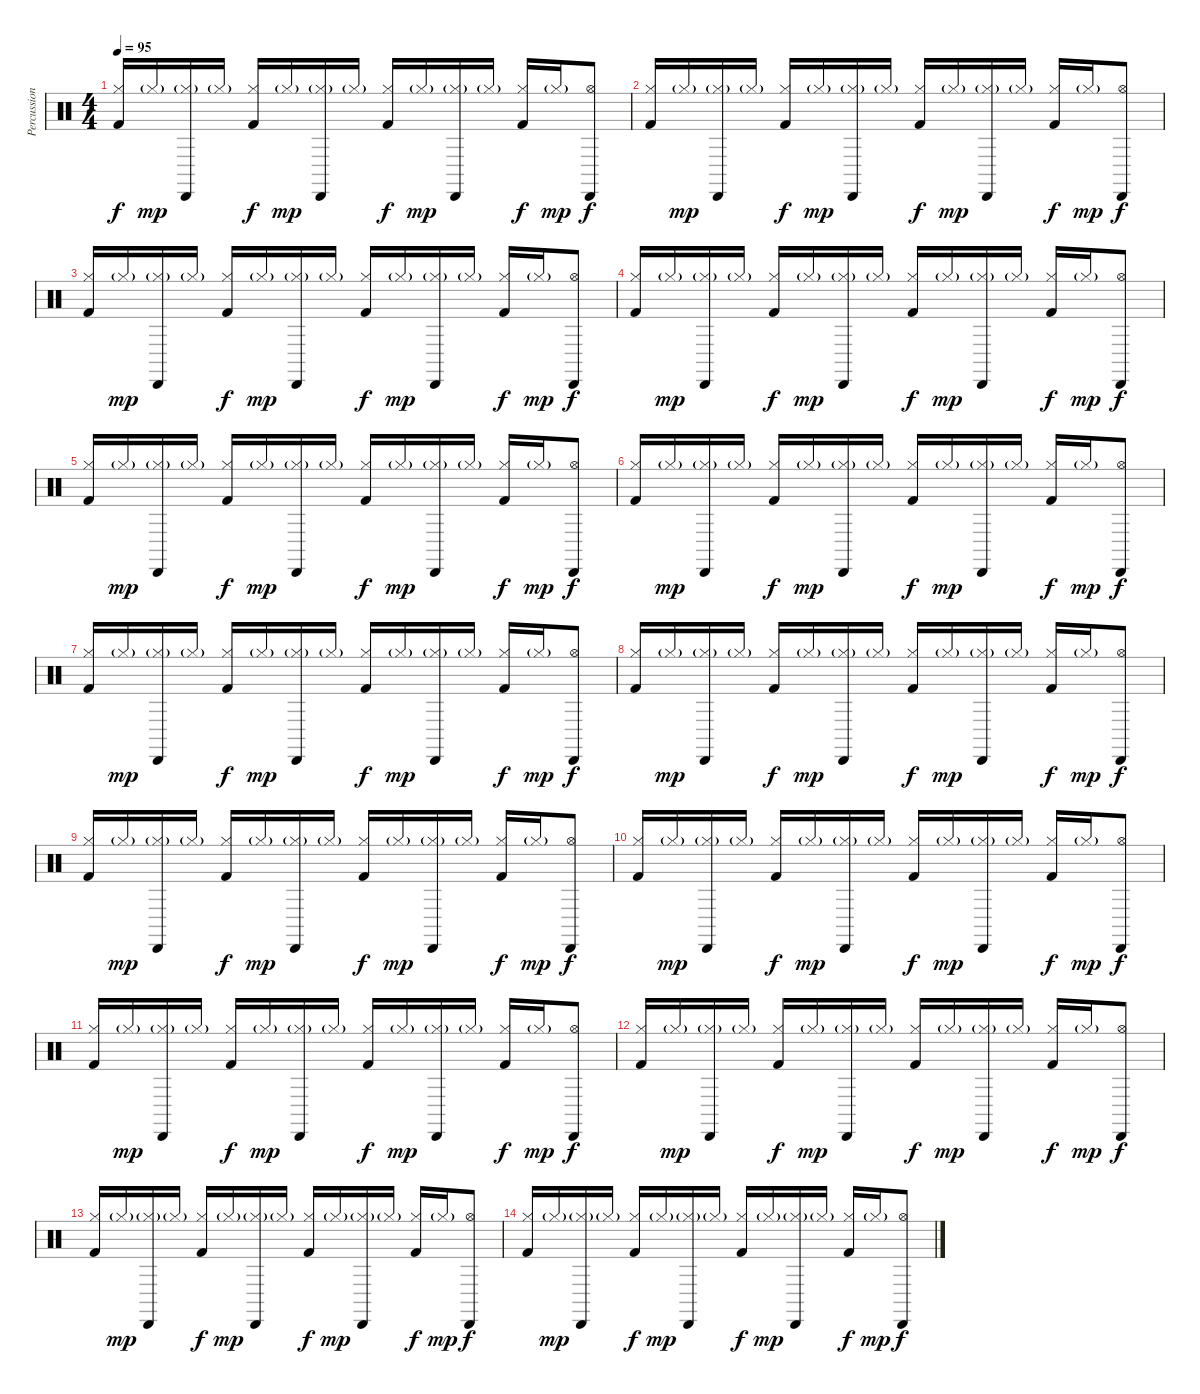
\track ("Percussion" "Percussion") {instrument percussion}
\staff {score}
\articulation defaults
\ts (4 4)
\tempo 95
\clef neutral
\ks c
("Hi-Hat (closed)" "Kick (hit) 2").16{dy f} "Hi-Hat (closed)"{g}.16{dy mp} ("Hi-Hat (closed)"{g} "Cabasa (hit)").16 "Hi-Hat (closed)"{g}.16 ("Hi-Hat (closed)" "Kick (hit) 2").16{dy f} "Hi-Hat (closed)"{g}.16{dy mp} ("Hi-Hat (closed)"{g} "Cabasa (hit)").16 "Hi-Hat (closed)"{g}.16 ("Hi-Hat (closed)" "Kick (hit) 2").16{dy f} "Hi-Hat (closed)"{g}.16{dy mp} ("Hi-Hat (closed)"{g} "Cabasa (hit)").16 "Hi-Hat (closed)"{g}.16 ("Hi-Hat (closed)" "Kick (hit) 2").16{dy f} "Hi-Hat (closed)"{g}.16{dy mp} ("Hi-Hat (open)" "Cabasa (hit)").8{dy f} |
("Hi-Hat (closed)" "Kick (hit) 2").16 "Hi-Hat (closed)"{g}.16{dy mp} ("Hi-Hat (closed)"{g} "Cabasa (hit)").16 "Hi-Hat (closed)"{g}.16 ("Hi-Hat (closed)" "Kick (hit) 2").16{dy f} "Hi-Hat (closed)"{g}.16{dy mp} ("Hi-Hat (closed)"{g} "Cabasa (hit)").16 "Hi-Hat (closed)"{g}.16 ("Hi-Hat (closed)" "Kick (hit) 2").16{dy f} "Hi-Hat (closed)"{g}.16{dy mp} ("Hi-Hat (closed)"{g} "Cabasa (hit)").16 "Hi-Hat (closed)"{g}.16 ("Hi-Hat (closed)" "Kick (hit) 2").16{dy f} "Hi-Hat (closed)"{g}.16{dy mp} ("Hi-Hat (open)" "Cabasa (hit)").8{dy f} |
("Hi-Hat (closed)" "Kick (hit) 2").16 "Hi-Hat (closed)"{g}.16{dy mp} ("Hi-Hat (closed)"{g} "Cabasa (hit)").16 "Hi-Hat (closed)"{g}.16 ("Hi-Hat (closed)" "Kick (hit) 2").16{dy f} "Hi-Hat (closed)"{g}.16{dy mp} ("Hi-Hat (closed)"{g} "Cabasa (hit)").16 "Hi-Hat (closed)"{g}.16 ("Hi-Hat (closed)" "Kick (hit) 2").16{dy f} "Hi-Hat (closed)"{g}.16{dy mp} ("Hi-Hat (closed)"{g} "Cabasa (hit)").16 "Hi-Hat (closed)"{g}.16 ("Hi-Hat (closed)" "Kick (hit) 2").16{dy f} "Hi-Hat (closed)"{g}.16{dy mp} ("Hi-Hat (open)" "Cabasa (hit)").8{dy f} |
("Hi-Hat (closed)" "Kick (hit) 2").16 "Hi-Hat (closed)"{g}.16{dy mp} ("Hi-Hat (closed)"{g} "Cabasa (hit)").16 "Hi-Hat (closed)"{g}.16 ("Hi-Hat (closed)" "Kick (hit) 2").16{dy f} "Hi-Hat (closed)"{g}.16{dy mp} ("Hi-Hat (closed)"{g} "Cabasa (hit)").16 "Hi-Hat (closed)"{g}.16 ("Hi-Hat (closed)" "Kick (hit) 2").16{dy f} "Hi-Hat (closed)"{g}.16{dy mp} ("Hi-Hat (closed)"{g} "Cabasa (hit)").16 "Hi-Hat (closed)"{g}.16 ("Hi-Hat (closed)" "Kick (hit) 2").16{dy f} "Hi-Hat (closed)"{g}.16{dy mp} ("Hi-Hat (open)" "Cabasa (hit)").8{dy f} |
("Hi-Hat (closed)" "Kick (hit) 2").16 "Hi-Hat (closed)"{g}.16{dy mp} ("Hi-Hat (closed)"{g} "Cabasa (hit)").16 "Hi-Hat (closed)"{g}.16 ("Hi-Hat (closed)" "Kick (hit) 2").16{dy f} "Hi-Hat (closed)"{g}.16{dy mp} ("Hi-Hat (closed)"{g} "Cabasa (hit)").16 "Hi-Hat (closed)"{g}.16 ("Hi-Hat (closed)" "Kick (hit) 2").16{dy f} "Hi-Hat (closed)"{g}.16{dy mp} ("Hi-Hat (closed)"{g} "Cabasa (hit)").16 "Hi-Hat (closed)"{g}.16 ("Hi-Hat (closed)" "Kick (hit) 2").16{dy f} "Hi-Hat (closed)"{g}.16{dy mp} ("Hi-Hat (open)" "Cabasa (hit)").8{dy f} |
("Hi-Hat (closed)" "Kick (hit) 2").16 "Hi-Hat (closed)"{g}.16{dy mp} ("Hi-Hat (closed)"{g} "Cabasa (hit)").16 "Hi-Hat (closed)"{g}.16 ("Hi-Hat (closed)" "Kick (hit) 2").16{dy f} "Hi-Hat (closed)"{g}.16{dy mp} ("Hi-Hat (closed)"{g} "Cabasa (hit)").16 "Hi-Hat (closed)"{g}.16 ("Hi-Hat (closed)" "Kick (hit) 2").16{dy f} "Hi-Hat (closed)"{g}.16{dy mp} ("Hi-Hat (closed)"{g} "Cabasa (hit)").16 "Hi-Hat (closed)"{g}.16 ("Hi-Hat (closed)" "Kick (hit) 2").16{dy f} "Hi-Hat (closed)"{g}.16{dy mp} ("Hi-Hat (open)" "Cabasa (hit)").8{dy f} |
("Hi-Hat (closed)" "Kick (hit) 2").16 "Hi-Hat (closed)"{g}.16{dy mp} ("Hi-Hat (closed)"{g} "Cabasa (hit)").16 "Hi-Hat (closed)"{g}.16 ("Hi-Hat (closed)" "Kick (hit) 2").16{dy f} "Hi-Hat (closed)"{g}.16{dy mp} ("Hi-Hat (closed)"{g} "Cabasa (hit)").16 "Hi-Hat (closed)"{g}.16 ("Hi-Hat (closed)" "Kick (hit) 2").16{dy f} "Hi-Hat (closed)"{g}.16{dy mp} ("Hi-Hat (closed)"{g} "Cabasa (hit)").16 "Hi-Hat (closed)"{g}.16 ("Hi-Hat (closed)" "Kick (hit) 2").16{dy f} "Hi-Hat (closed)"{g}.16{dy mp} ("Hi-Hat (open)" "Cabasa (hit)").8{dy f} |
("Hi-Hat (closed)" "Kick (hit) 2").16 "Hi-Hat (closed)"{g}.16{dy mp} ("Hi-Hat (closed)"{g} "Cabasa (hit)").16 "Hi-Hat (closed)"{g}.16 ("Hi-Hat (closed)" "Kick (hit) 2").16{dy f} "Hi-Hat (closed)"{g}.16{dy mp} ("Hi-Hat (closed)"{g} "Cabasa (hit)").16 "Hi-Hat (closed)"{g}.16 ("Hi-Hat (closed)" "Kick (hit) 2").16{dy f} "Hi-Hat (closed)"{g}.16{dy mp} ("Hi-Hat (closed)"{g} "Cabasa (hit)").16 "Hi-Hat (closed)"{g}.16 ("Hi-Hat (closed)" "Kick (hit) 2").16{dy f} "Hi-Hat (closed)"{g}.16{dy mp} ("Hi-Hat (open)" "Cabasa (hit)").8{dy f} |
("Hi-Hat (closed)" "Kick (hit) 2").16 "Hi-Hat (closed)"{g}.16{dy mp} ("Hi-Hat (closed)"{g} "Cabasa (hit)").16 "Hi-Hat (closed)"{g}.16 ("Hi-Hat (closed)" "Kick (hit) 2").16{dy f} "Hi-Hat (closed)"{g}.16{dy mp} ("Hi-Hat (closed)"{g} "Cabasa (hit)").16 "Hi-Hat (closed)"{g}.16 ("Hi-Hat (closed)" "Kick (hit) 2").16{dy f} "Hi-Hat (closed)"{g}.16{dy mp} ("Hi-Hat (closed)"{g} "Cabasa (hit)").16 "Hi-Hat (closed)"{g}.16 ("Hi-Hat (closed)" "Kick (hit) 2").16{dy f} "Hi-Hat (closed)"{g}.16{dy mp} ("Hi-Hat (open)" "Cabasa (hit)").8{dy f} |
("Hi-Hat (closed)" "Kick (hit) 2").16 "Hi-Hat (closed)"{g}.16{dy mp} ("Hi-Hat (closed)"{g} "Cabasa (hit)").16 "Hi-Hat (closed)"{g}.16 ("Hi-Hat (closed)" "Kick (hit) 2").16{dy f} "Hi-Hat (closed)"{g}.16{dy mp} ("Hi-Hat (closed)"{g} "Cabasa (hit)").16 "Hi-Hat (closed)"{g}.16 ("Hi-Hat (closed)" "Kick (hit) 2").16{dy f} "Hi-Hat (closed)"{g}.16{dy mp} ("Hi-Hat (closed)"{g} "Cabasa (hit)").16 "Hi-Hat (closed)"{g}.16 ("Hi-Hat (closed)" "Kick (hit) 2").16{dy f} "Hi-Hat (closed)"{g}.16{dy mp} ("Hi-Hat (open)" "Cabasa (hit)").8{dy f} |
("Hi-Hat (closed)" "Kick (hit) 2").16 "Hi-Hat (closed)"{g}.16{dy mp} ("Hi-Hat (closed)"{g} "Cabasa (hit)").16 "Hi-Hat (closed)"{g}.16 ("Hi-Hat (closed)" "Kick (hit) 2").16{dy f} "Hi-Hat (closed)"{g}.16{dy mp} ("Hi-Hat (closed)"{g} "Cabasa (hit)").16 "Hi-Hat (closed)"{g}.16 ("Hi-Hat (closed)" "Kick (hit) 2").16{dy f} "Hi-Hat (closed)"{g}.16{dy mp} ("Hi-Hat (closed)"{g} "Cabasa (hit)").16 "Hi-Hat (closed)"{g}.16 ("Hi-Hat (closed)" "Kick (hit) 2").16{dy f} "Hi-Hat (closed)"{g}.16{dy mp} ("Hi-Hat (open)" "Cabasa (hit)").8{dy f} |
("Hi-Hat (closed)" "Kick (hit) 2").16 "Hi-Hat (closed)"{g}.16{dy mp} ("Hi-Hat (closed)"{g} "Cabasa (hit)").16 "Hi-Hat (closed)"{g}.16 ("Hi-Hat (closed)" "Kick (hit) 2").16{dy f} "Hi-Hat (closed)"{g}.16{dy mp} ("Hi-Hat (closed)"{g} "Cabasa (hit)").16 "Hi-Hat (closed)"{g}.16 ("Hi-Hat (closed)" "Kick (hit) 2").16{dy f} "Hi-Hat (closed)"{g}.16{dy mp} ("Hi-Hat (closed)"{g} "Cabasa (hit)").16 "Hi-Hat (closed)"{g}.16 ("Hi-Hat (closed)" "Kick (hit) 2").16{dy f} "Hi-Hat (closed)"{g}.16{dy mp} ("Hi-Hat (open)" "Cabasa (hit)").8{dy f} |
("Hi-Hat (closed)" "Kick (hit) 2").16 "Hi-Hat (closed)"{g}.16{dy mp} ("Hi-Hat (closed)"{g} "Cabasa (hit)").16 "Hi-Hat (closed)"{g}.16 ("Hi-Hat (closed)" "Kick (hit) 2").16{dy f} "Hi-Hat (closed)"{g}.16{dy mp} ("Hi-Hat (closed)"{g} "Cabasa (hit)").16 "Hi-Hat (closed)"{g}.16 ("Hi-Hat (closed)" "Kick (hit) 2").16{dy f} "Hi-Hat (closed)"{g}.16{dy mp} ("Hi-Hat (closed)"{g} "Cabasa (hit)").16 "Hi-Hat (closed)"{g}.16 ("Hi-Hat (closed)" "Kick (hit) 2").16{dy f} "Hi-Hat (closed)"{g}.16{dy mp} ("Hi-Hat (open)" "Cabasa (hit)").8{dy f} |
("Hi-Hat (closed)" "Kick (hit) 2").16 "Hi-Hat (closed)"{g}.16{dy mp} ("Hi-Hat (closed)"{g} "Cabasa (hit)").16 "Hi-Hat (closed)"{g}.16 ("Hi-Hat (closed)" "Kick (hit) 2").16{dy f} "Hi-Hat (closed)"{g}.16{dy mp} ("Hi-Hat (closed)"{g} "Cabasa (hit)").16 "Hi-Hat (closed)"{g}.16 ("Hi-Hat (closed)" "Kick (hit) 2").16{dy f} "Hi-Hat (closed)"{g}.16{dy mp} ("Hi-Hat (closed)"{g} "Cabasa (hit)").16 "Hi-Hat (closed)"{g}.16 ("Hi-Hat (closed)" "Kick (hit) 2").16{dy f} "Hi-Hat (closed)"{g}.16{dy mp} ("Hi-Hat (open)" "Cabasa (hit)").8{dy f}
